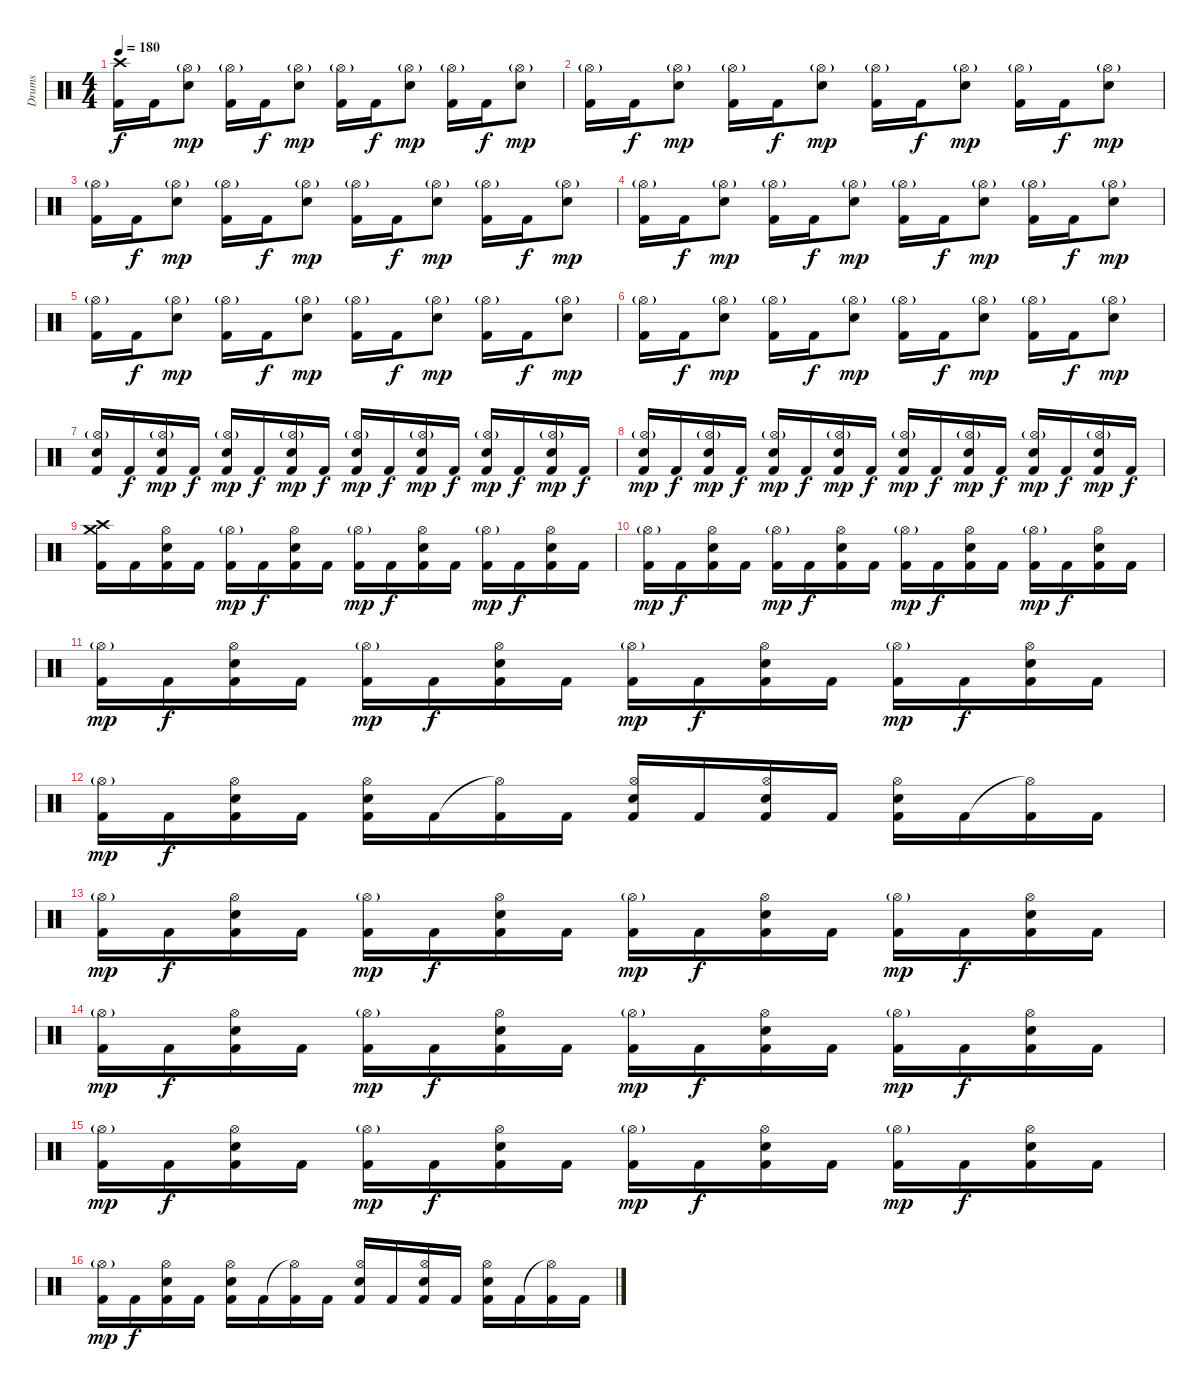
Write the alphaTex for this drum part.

\track ("Drums" "Drums") {instrument percussion}
\staff {score}
\articulation defaults
\ts (4 4)
\tempo 180
\clef neutral
\ks c
("Crash high (hit)" "Kick (hit) 2").16{dy f} "Kick (hit) 2".16 ("Hi-Hat (open)"{g} "Electric Snare (hit)").8{dy mp} ("Hi-Hat (open)"{g} "Kick (hit) 2").16 "Kick (hit) 2".16{dy f} ("Hi-Hat (open)"{g} "Electric Snare (hit)").8{dy mp} ("Hi-Hat (open)"{g} "Kick (hit) 2").16 "Kick (hit) 2".16{dy f} ("Hi-Hat (open)"{g} "Electric Snare (hit)").8{dy mp} ("Hi-Hat (open)"{g} "Kick (hit) 2").16 "Kick (hit) 2".16{dy f} ("Hi-Hat (open)"{g} "Electric Snare (hit)").8{dy mp} |
("Hi-Hat (open)"{g} "Kick (hit) 2").16 "Kick (hit) 2".16{dy f} ("Hi-Hat (open)"{g} "Electric Snare (hit)").8{dy mp} ("Hi-Hat (open)"{g} "Kick (hit) 2").16 "Kick (hit) 2".16{dy f} ("Hi-Hat (open)"{g} "Electric Snare (hit)").8{dy mp} ("Hi-Hat (open)"{g} "Kick (hit) 2").16 "Kick (hit) 2".16{dy f} ("Hi-Hat (open)"{g} "Electric Snare (hit)").8{dy mp} ("Hi-Hat (open)"{g} "Kick (hit) 2").16 "Kick (hit) 2".16{dy f} ("Hi-Hat (open)"{g} "Electric Snare (hit)").8{dy mp} |
("Hi-Hat (open)"{g} "Kick (hit) 2").16 "Kick (hit) 2".16{dy f} ("Hi-Hat (open)"{g} "Electric Snare (hit)").8{dy mp} ("Hi-Hat (open)"{g} "Kick (hit) 2").16 "Kick (hit) 2".16{dy f} ("Hi-Hat (open)"{g} "Electric Snare (hit)").8{dy mp} ("Hi-Hat (open)"{g} "Kick (hit) 2").16 "Kick (hit) 2".16{dy f} ("Hi-Hat (open)"{g} "Electric Snare (hit)").8{dy mp} ("Hi-Hat (open)"{g} "Kick (hit) 2").16 "Kick (hit) 2".16{dy f} ("Hi-Hat (open)"{g} "Electric Snare (hit)").8{dy mp} |
("Hi-Hat (open)"{g} "Kick (hit) 2").16 "Kick (hit) 2".16{dy f} ("Hi-Hat (open)"{g} "Electric Snare (hit)").8{dy mp} ("Hi-Hat (open)"{g} "Kick (hit) 2").16 "Kick (hit) 2".16{dy f} ("Hi-Hat (open)"{g} "Electric Snare (hit)").8{dy mp} ("Hi-Hat (open)"{g} "Kick (hit) 2").16 "Kick (hit) 2".16{dy f} ("Hi-Hat (open)"{g} "Electric Snare (hit)").8{dy mp} ("Hi-Hat (open)"{g} "Kick (hit) 2").16 "Kick (hit) 2".16{dy f} ("Hi-Hat (open)"{g} "Electric Snare (hit)").8{dy mp} |
("Hi-Hat (open)"{g} "Kick (hit) 2").16 "Kick (hit) 2".16{dy f} ("Hi-Hat (open)"{g} "Electric Snare (hit)").8{dy mp} ("Hi-Hat (open)"{g} "Kick (hit) 2").16 "Kick (hit) 2".16{dy f} ("Hi-Hat (open)"{g} "Electric Snare (hit)").8{dy mp} ("Hi-Hat (open)"{g} "Kick (hit) 2").16 "Kick (hit) 2".16{dy f} ("Hi-Hat (open)"{g} "Electric Snare (hit)").8{dy mp} ("Hi-Hat (open)"{g} "Kick (hit) 2").16 "Kick (hit) 2".16{dy f} ("Hi-Hat (open)"{g} "Electric Snare (hit)").8{dy mp} |
("Hi-Hat (open)"{g} "Kick (hit) 2").16 "Kick (hit) 2".16{dy f} ("Hi-Hat (open)"{g} "Electric Snare (hit)").8{dy mp} ("Hi-Hat (open)"{g} "Kick (hit) 2").16 "Kick (hit) 2".16{dy f} ("Hi-Hat (open)"{g} "Electric Snare (hit)").8{dy mp} ("Hi-Hat (open)"{g} "Kick (hit) 2").16 "Kick (hit) 2".16{dy f} ("Hi-Hat (open)"{g} "Electric Snare (hit)").8{dy mp} ("Hi-Hat (open)"{g} "Kick (hit) 2").16 "Kick (hit) 2".16{dy f} ("Hi-Hat (open)"{g} "Electric Snare (hit)").8{dy mp} |
("Hi-Hat (open)"{g} "Electric Snare (hit)" "Kick (hit) 2").16 "Kick (hit) 2".16{dy f} ("Hi-Hat (open)"{g} "Electric Snare (hit)" "Kick (hit) 2").16{dy mp} "Kick (hit) 2".16{dy f} ("Hi-Hat (open)"{g} "Electric Snare (hit)" "Kick (hit) 2").16{dy mp} "Kick (hit) 2".16{dy f} ("Hi-Hat (open)"{g} "Electric Snare (hit)" "Kick (hit) 2").16{dy mp} "Kick (hit) 2".16{dy f} ("Hi-Hat (open)"{g} "Electric Snare (hit)" "Kick (hit) 2").16{dy mp} "Kick (hit) 2".16{dy f} ("Hi-Hat (open)"{g} "Electric Snare (hit)" "Kick (hit) 2").16{dy mp} "Kick (hit) 2".16{dy f} ("Hi-Hat (open)"{g} "Electric Snare (hit)" "Kick (hit) 2").16{dy mp} "Kick (hit) 2".16{dy f} ("Hi-Hat (open)"{g} "Electric Snare (hit)" "Kick (hit) 2").16{dy mp} "Kick (hit) 2".16{dy f} |
("Hi-Hat (open)"{g} "Electric Snare (hit)" "Kick (hit) 2").16{dy mp} "Kick (hit) 2".16{dy f} ("Hi-Hat (open)"{g} "Electric Snare (hit)" "Kick (hit) 2").16{dy mp} "Kick (hit) 2".16{dy f} ("Hi-Hat (open)"{g} "Electric Snare (hit)" "Kick (hit) 2").16{dy mp} "Kick (hit) 2".16{dy f} ("Hi-Hat (open)"{g} "Electric Snare (hit)" "Kick (hit) 2").16{dy mp} "Kick (hit) 2".16{dy f} ("Hi-Hat (open)"{g} "Electric Snare (hit)" "Kick (hit) 2").16{dy mp} "Kick (hit) 2".16{dy f} ("Hi-Hat (open)"{g} "Electric Snare (hit)" "Kick (hit) 2").16{dy mp} "Kick (hit) 2".16{dy f} ("Hi-Hat (open)"{g} "Electric Snare (hit)" "Kick (hit) 2").16{dy mp} "Kick (hit) 2".16{dy f} ("Hi-Hat (open)"{g} "Electric Snare (hit)" "Kick (hit) 2").16{dy mp} "Kick (hit) 2".16{dy f} |
("Crash medium (hit)" "Crash high (hit)" "Kick (hit) 2").16 "Kick (hit) 2".16 ("Hi-Hat (open)" "Electric Snare (hit)" "Kick (hit) 2").16 "Kick (hit) 2".16 ("Hi-Hat (open)"{g} "Kick (hit) 2").16{dy mp} "Kick (hit) 2".16{dy f} ("Hi-Hat (open)" "Electric Snare (hit)" "Kick (hit) 2").16 "Kick (hit) 2".16 ("Hi-Hat (open)"{g} "Kick (hit) 2").16{dy mp} "Kick (hit) 2".16{dy f} ("Hi-Hat (open)" "Electric Snare (hit)" "Kick (hit) 2").16 "Kick (hit) 2".16 ("Hi-Hat (open)"{g} "Kick (hit) 2").16{dy mp} "Kick (hit) 2".16{dy f} ("Hi-Hat (open)" "Electric Snare (hit)" "Kick (hit) 2").16 "Kick (hit) 2".16 |
("Hi-Hat (open)"{g} "Kick (hit) 2").16{dy mp} "Kick (hit) 2".16{dy f} ("Hi-Hat (open)" "Electric Snare (hit)" "Kick (hit) 2").16 "Kick (hit) 2".16 ("Hi-Hat (open)"{g} "Kick (hit) 2").16{dy mp} "Kick (hit) 2".16{dy f} ("Hi-Hat (open)" "Electric Snare (hit)" "Kick (hit) 2").16 "Kick (hit) 2".16 ("Hi-Hat (open)"{g} "Kick (hit) 2").16{dy mp} "Kick (hit) 2".16{dy f} ("Hi-Hat (open)" "Electric Snare (hit)" "Kick (hit) 2").16 "Kick (hit) 2".16 ("Hi-Hat (open)"{g} "Kick (hit) 2").16{dy mp} "Kick (hit) 2".16{dy f} ("Hi-Hat (open)" "Electric Snare (hit)" "Kick (hit) 2").16 "Kick (hit) 2".16 |
("Hi-Hat (open)"{g} "Kick (hit) 2").16{dy mp} "Kick (hit) 2".16{dy f} ("Hi-Hat (open)" "Electric Snare (hit)" "Kick (hit) 2").16 "Kick (hit) 2".16 ("Hi-Hat (open)"{g} "Kick (hit) 2").16{dy mp} "Kick (hit) 2".16{dy f} ("Hi-Hat (open)" "Electric Snare (hit)" "Kick (hit) 2").16 "Kick (hit) 2".16 ("Hi-Hat (open)"{g} "Kick (hit) 2").16{dy mp} "Kick (hit) 2".16{dy f} ("Hi-Hat (open)" "Electric Snare (hit)" "Kick (hit) 2").16 "Kick (hit) 2".16 ("Hi-Hat (open)"{g} "Kick (hit) 2").16{dy mp} "Kick (hit) 2".16{dy f} ("Hi-Hat (open)" "Electric Snare (hit)" "Kick (hit) 2").16 "Kick (hit) 2".16 |
("Hi-Hat (open)"{g} "Kick (hit) 2").16{dy mp} "Kick (hit) 2".16{dy f} ("Hi-Hat (open)" "Electric Snare (hit)" "Kick (hit) 2").16 "Kick (hit) 2".16 ("Hi-Hat (open)" "Electric Snare (hit)" "Kick (hit) 2").16 "Kick (hit) 2".16 ("Hi-Hat (open)"{t} "Kick (hit) 2").16 "Kick (hit) 2".16 ("Hi-Hat (open)" "Electric Snare (hit)" "Kick (hit) 2").16 "Kick (hit) 2".16 ("Hi-Hat (open)" "Electric Snare (hit)" "Kick (hit) 2").16 "Kick (hit) 2".16 ("Hi-Hat (open)" "Electric Snare (hit)" "Kick (hit) 2").16 "Kick (hit) 2".16 ("Hi-Hat (open)"{t} "Kick (hit) 2").16 "Kick (hit) 2".16 |
("Hi-Hat (open)"{g} "Kick (hit) 2").16{dy mp} "Kick (hit) 2".16{dy f} ("Hi-Hat (open)" "Electric Snare (hit)" "Kick (hit) 2").16 "Kick (hit) 2".16 ("Hi-Hat (open)"{g} "Kick (hit) 2").16{dy mp} "Kick (hit) 2".16{dy f} ("Hi-Hat (open)" "Electric Snare (hit)" "Kick (hit) 2").16 "Kick (hit) 2".16 ("Hi-Hat (open)"{g} "Kick (hit) 2").16{dy mp} "Kick (hit) 2".16{dy f} ("Hi-Hat (open)" "Electric Snare (hit)" "Kick (hit) 2").16 "Kick (hit) 2".16 ("Hi-Hat (open)"{g} "Kick (hit) 2").16{dy mp} "Kick (hit) 2".16{dy f} ("Hi-Hat (open)" "Electric Snare (hit)" "Kick (hit) 2").16 "Kick (hit) 2".16 |
("Hi-Hat (open)"{g} "Kick (hit) 2").16{dy mp} "Kick (hit) 2".16{dy f} ("Hi-Hat (open)" "Electric Snare (hit)" "Kick (hit) 2").16 "Kick (hit) 2".16 ("Hi-Hat (open)"{g} "Kick (hit) 2").16{dy mp} "Kick (hit) 2".16{dy f} ("Hi-Hat (open)" "Electric Snare (hit)" "Kick (hit) 2").16 "Kick (hit) 2".16 ("Hi-Hat (open)"{g} "Kick (hit) 2").16{dy mp} "Kick (hit) 2".16{dy f} ("Hi-Hat (open)" "Electric Snare (hit)" "Kick (hit) 2").16 "Kick (hit) 2".16 ("Hi-Hat (open)"{g} "Kick (hit) 2").16{dy mp} "Kick (hit) 2".16{dy f} ("Hi-Hat (open)" "Electric Snare (hit)" "Kick (hit) 2").16 "Kick (hit) 2".16 |
("Hi-Hat (open)"{g} "Kick (hit) 2").16{dy mp} "Kick (hit) 2".16{dy f} ("Hi-Hat (open)" "Electric Snare (hit)" "Kick (hit) 2").16 "Kick (hit) 2".16 ("Hi-Hat (open)"{g} "Kick (hit) 2").16{dy mp} "Kick (hit) 2".16{dy f} ("Hi-Hat (open)" "Electric Snare (hit)" "Kick (hit) 2").16 "Kick (hit) 2".16 ("Hi-Hat (open)"{g} "Kick (hit) 2").16{dy mp} "Kick (hit) 2".16{dy f} ("Hi-Hat (open)" "Electric Snare (hit)" "Kick (hit) 2").16 "Kick (hit) 2".16 ("Hi-Hat (open)"{g} "Kick (hit) 2").16{dy mp} "Kick (hit) 2".16{dy f} ("Hi-Hat (open)" "Electric Snare (hit)" "Kick (hit) 2").16 "Kick (hit) 2".16 |
("Hi-Hat (open)"{g} "Kick (hit) 2").16{dy mp} "Kick (hit) 2".16{dy f} ("Hi-Hat (open)" "Electric Snare (hit)" "Kick (hit) 2").16 "Kick (hit) 2".16 ("Hi-Hat (open)" "Electric Snare (hit)" "Kick (hit) 2").16 "Kick (hit) 2".16 ("Hi-Hat (open)"{t} "Kick (hit) 2").16 "Kick (hit) 2".16 ("Hi-Hat (open)" "Electric Snare (hit)" "Kick (hit) 2").16 "Kick (hit) 2".16 ("Hi-Hat (open)" "Electric Snare (hit)" "Kick (hit) 2").16 "Kick (hit) 2".16 ("Hi-Hat (open)" "Electric Snare (hit)" "Kick (hit) 2").16 "Kick (hit) 2".16 ("Hi-Hat (open)"{t} "Kick (hit) 2").16 "Kick (hit) 2".16
